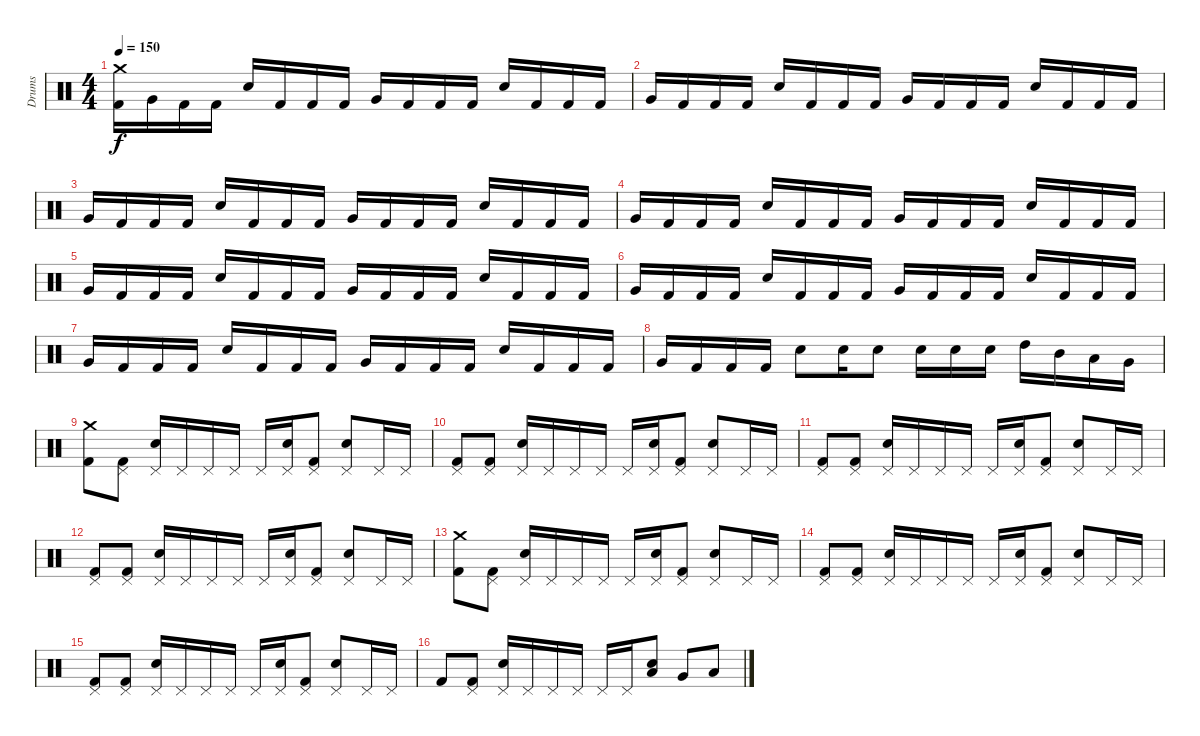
\track ("Drums" "Drums") {instrument percussion}
\staff {score}
\articulation defaults
\ts (4 4)
\tempo 150
\clef neutral
\ks c
("Crash medium (hit)" "Kick (hit) 2").16{dy f} "Very Low Tom (hit)".16 "Kick (hit) 2".16 "Kick (hit) 2".16 "Electric Snare (hit)".16 "Kick (hit) 2".16 "Kick (hit) 2".16 "Kick (hit) 2".16 "Very Low Tom (hit)".16 "Kick (hit) 2".16 "Kick (hit) 2".16 "Kick (hit) 2".16 "Electric Snare (hit)".16 "Kick (hit) 2".16 "Kick (hit) 2".16 "Kick (hit) 2".16 |
"Very Low Tom (hit)".16 "Kick (hit) 2".16 "Kick (hit) 2".16 "Kick (hit) 2".16 "Electric Snare (hit)".16 "Kick (hit) 2".16 "Kick (hit) 2".16 "Kick (hit) 2".16 "Very Low Tom (hit)".16 "Kick (hit) 2".16 "Kick (hit) 2".16 "Kick (hit) 2".16 "Electric Snare (hit)".16 "Kick (hit) 2".16 "Kick (hit) 2".16 "Kick (hit) 2".16 |
"Very Low Tom (hit)".16 "Kick (hit) 2".16 "Kick (hit) 2".16 "Kick (hit) 2".16 "Electric Snare (hit)".16 "Kick (hit) 2".16 "Kick (hit) 2".16 "Kick (hit) 2".16 "Very Low Tom (hit)".16 "Kick (hit) 2".16 "Kick (hit) 2".16 "Kick (hit) 2".16 "Electric Snare (hit)".16 "Kick (hit) 2".16 "Kick (hit) 2".16 "Kick (hit) 2".16 |
"Very Low Tom (hit)".16 "Kick (hit) 2".16 "Kick (hit) 2".16 "Kick (hit) 2".16 "Electric Snare (hit)".16 "Kick (hit) 2".16 "Kick (hit) 2".16 "Kick (hit) 2".16 "Very Low Tom (hit)".16 "Kick (hit) 2".16 "Kick (hit) 2".16 "Kick (hit) 2".16 "Electric Snare (hit)".16 "Kick (hit) 2".16 "Kick (hit) 2".16 "Kick (hit) 2".16 |
"Very Low Tom (hit)".16 "Kick (hit) 2".16 "Kick (hit) 2".16 "Kick (hit) 2".16 "Electric Snare (hit)".16 "Kick (hit) 2".16 "Kick (hit) 2".16 "Kick (hit) 2".16 "Very Low Tom (hit)".16 "Kick (hit) 2".16 "Kick (hit) 2".16 "Kick (hit) 2".16 "Electric Snare (hit)".16 "Kick (hit) 2".16 "Kick (hit) 2".16 "Kick (hit) 2".16 |
"Very Low Tom (hit)".16 "Kick (hit) 2".16 "Kick (hit) 2".16 "Kick (hit) 2".16 "Electric Snare (hit)".16 "Kick (hit) 2".16 "Kick (hit) 2".16 "Kick (hit) 2".16 "Very Low Tom (hit)".16 "Kick (hit) 2".16 "Kick (hit) 2".16 "Kick (hit) 2".16 "Electric Snare (hit)".16 "Kick (hit) 2".16 "Kick (hit) 2".16 "Kick (hit) 2".16 |
"Very Low Tom (hit)".16 "Kick (hit) 2".16 "Kick (hit) 2".16 "Kick (hit) 2".16 "Electric Snare (hit)".16 "Kick (hit) 2".16 "Kick (hit) 2".16 "Kick (hit) 2".16 "Very Low Tom (hit)".16 "Kick (hit) 2".16 "Kick (hit) 2".16 "Kick (hit) 2".16 "Electric Snare (hit)".16 "Kick (hit) 2".16 "Kick (hit) 2".16 "Kick (hit) 2".16 |
"Very Low Tom (hit)".16 "Kick (hit) 2".16 "Kick (hit) 2".16 "Kick (hit) 2".16 "Electric Snare (hit)".8 "Electric Snare (hit)".16 "Electric Snare (hit)".8 "Electric Snare (hit)".16 "Electric Snare (hit)".16 "Electric Snare (hit)".16 "High Tom (hit)".16 "Mid Tom (hit)".16 "Low Tom (hit)".16 "Very Low Tom (hit)".16 |
("Crash medium (hit)" "Kick (hit) 2").8 ("Pedal Hi-Hat (hit)" "Kick (hit) 2").8 ("Pedal Hi-Hat (hit)" "Electric Snare (hit)").16 "Pedal Hi-Hat (hit)".16 "Pedal Hi-Hat (hit)".16 "Pedal Hi-Hat (hit)".16 "Pedal Hi-Hat (hit)".16 ("Pedal Hi-Hat (hit)" "Electric Snare (hit)").16 ("Pedal Hi-Hat (hit)" "Kick (hit) 2").8 ("Pedal Hi-Hat (hit)" "Electric Snare (hit)").8 "Pedal Hi-Hat (hit)".16 "Pedal Hi-Hat (hit)".16 |
("Pedal Hi-Hat (hit)" "Kick (hit) 2").8 ("Pedal Hi-Hat (hit)" "Kick (hit) 2").8 ("Pedal Hi-Hat (hit)" "Electric Snare (hit)").16 "Pedal Hi-Hat (hit)".16 "Pedal Hi-Hat (hit)".16 "Pedal Hi-Hat (hit)".16 "Pedal Hi-Hat (hit)".16 ("Pedal Hi-Hat (hit)" "Electric Snare (hit)").16 ("Pedal Hi-Hat (hit)" "Kick (hit) 2").8 ("Pedal Hi-Hat (hit)" "Electric Snare (hit)").8 "Pedal Hi-Hat (hit)".16 "Pedal Hi-Hat (hit)".16 |
("Pedal Hi-Hat (hit)" "Kick (hit) 2").8 ("Pedal Hi-Hat (hit)" "Kick (hit) 2").8 ("Pedal Hi-Hat (hit)" "Electric Snare (hit)").16 "Pedal Hi-Hat (hit)".16 "Pedal Hi-Hat (hit)".16 "Pedal Hi-Hat (hit)".16 "Pedal Hi-Hat (hit)".16 ("Pedal Hi-Hat (hit)" "Electric Snare (hit)").16 ("Pedal Hi-Hat (hit)" "Kick (hit) 2").8 ("Pedal Hi-Hat (hit)" "Electric Snare (hit)").8 "Pedal Hi-Hat (hit)".16 "Pedal Hi-Hat (hit)".16 |
("Pedal Hi-Hat (hit)" "Kick (hit) 2").8 ("Pedal Hi-Hat (hit)" "Kick (hit) 2").8 ("Pedal Hi-Hat (hit)" "Electric Snare (hit)").16 "Pedal Hi-Hat (hit)".16 "Pedal Hi-Hat (hit)".16 "Pedal Hi-Hat (hit)".16 "Pedal Hi-Hat (hit)".16 ("Pedal Hi-Hat (hit)" "Electric Snare (hit)").16 ("Pedal Hi-Hat (hit)" "Kick (hit) 2").8 ("Pedal Hi-Hat (hit)" "Electric Snare (hit)").8 "Pedal Hi-Hat (hit)".16 "Pedal Hi-Hat (hit)".16 |
("Crash medium (hit)" "Kick (hit) 2").8 ("Pedal Hi-Hat (hit)" "Kick (hit) 2").8 ("Pedal Hi-Hat (hit)" "Electric Snare (hit)").16 "Pedal Hi-Hat (hit)".16 "Pedal Hi-Hat (hit)".16 "Pedal Hi-Hat (hit)".16 "Pedal Hi-Hat (hit)".16 ("Pedal Hi-Hat (hit)" "Electric Snare (hit)").16 ("Pedal Hi-Hat (hit)" "Kick (hit) 2").8 ("Pedal Hi-Hat (hit)" "Electric Snare (hit)").8 "Pedal Hi-Hat (hit)".16 "Pedal Hi-Hat (hit)".16 |
("Pedal Hi-Hat (hit)" "Kick (hit) 2").8 ("Pedal Hi-Hat (hit)" "Kick (hit) 2").8 ("Pedal Hi-Hat (hit)" "Electric Snare (hit)").16 "Pedal Hi-Hat (hit)".16 "Pedal Hi-Hat (hit)".16 "Pedal Hi-Hat (hit)".16 "Pedal Hi-Hat (hit)".16 ("Pedal Hi-Hat (hit)" "Electric Snare (hit)").16 ("Pedal Hi-Hat (hit)" "Kick (hit) 2").8 ("Pedal Hi-Hat (hit)" "Electric Snare (hit)").8 "Pedal Hi-Hat (hit)".16 "Pedal Hi-Hat (hit)".16 |
("Pedal Hi-Hat (hit)" "Kick (hit) 2").8 ("Pedal Hi-Hat (hit)" "Kick (hit) 2").8 ("Pedal Hi-Hat (hit)" "Electric Snare (hit)").16 "Pedal Hi-Hat (hit)".16 "Pedal Hi-Hat (hit)".16 "Pedal Hi-Hat (hit)".16 "Pedal Hi-Hat (hit)".16 ("Pedal Hi-Hat (hit)" "Electric Snare (hit)").16 ("Pedal Hi-Hat (hit)" "Kick (hit) 2").8 ("Pedal Hi-Hat (hit)" "Electric Snare (hit)").8 "Pedal Hi-Hat (hit)".16 "Pedal Hi-Hat (hit)".16 |
"Kick (hit) 2".8 ("Pedal Hi-Hat (hit)" "Kick (hit) 2").8 ("Pedal Hi-Hat (hit)" "Electric Snare (hit)").16 "Pedal Hi-Hat (hit)".16 "Pedal Hi-Hat (hit)".16 "Pedal Hi-Hat (hit)".16 "Pedal Hi-Hat (hit)".16 "Pedal Hi-Hat (hit)".16 ("Electric Snare (hit)" "Low Floor Tom (hit)").8 "Very Low Tom (hit)".8 "Low Floor Tom (hit)".8
